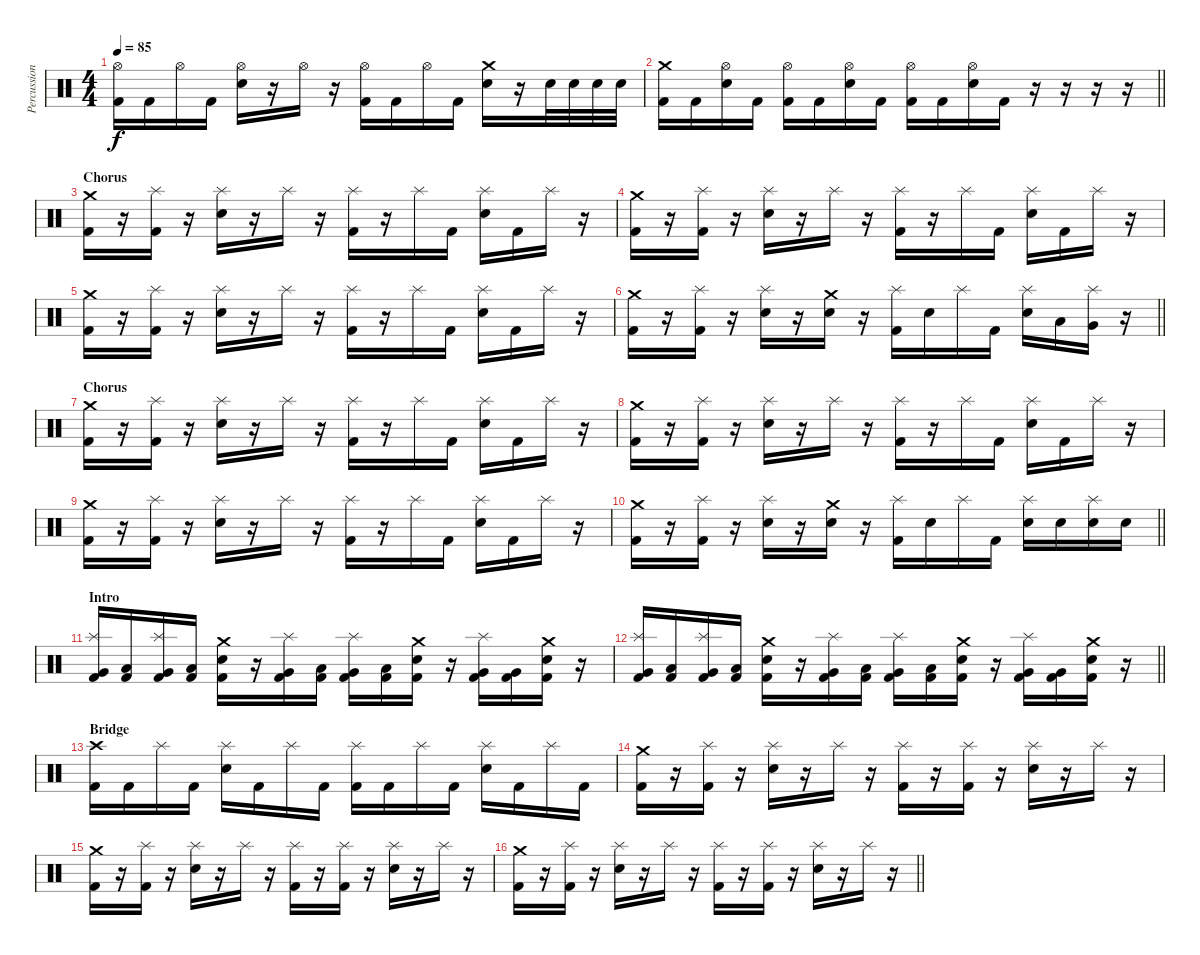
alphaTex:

\track ("Percussion" "Percussion") {instrument percussion}
\staff {score}
\articulation defaults
\ts (4 4)
\tempo 85
\clef neutral
\ks c
("Hi-Hat (open)" "Kick (hit) 2").16{dy f} "Kick (hit) 2".16 "Hi-Hat (open)".16 "Kick (hit) 2".16 ("Hi-Hat (open)" "Electric Snare (hit)").16 r.16 "Hi-Hat (open)".16 r.16 ("Hi-Hat (open)" "Kick (hit) 2").16 "Kick (hit) 2".16 "Hi-Hat (open)".16 "Kick (hit) 2".16 ("Crash medium (hit)" "Electric Snare (hit)").16 r.16 "Electric Snare (hit)".32 "Electric Snare (hit)".32 "Electric Snare (hit)".32 "Electric Snare (hit)".32 |
\barLineRight lightlight
("Crash medium (hit)" "Kick (hit) 2").16 "Kick (hit) 2".16 ("Hi-Hat (open)" "Electric Snare (hit)").16 "Kick (hit) 2".16 ("Hi-Hat (open)" "Kick (hit) 2").16 "Kick (hit) 2".16 ("Hi-Hat (open)" "Electric Snare (hit)").16 "Kick (hit) 2".16 ("Hi-Hat (open)" "Kick (hit) 2").16 "Kick (hit) 2".16 ("Hi-Hat (open)" "Electric Snare (hit)").16 "Kick (hit) 2".16 r.16 r.16 r.16 r.16 |
\section ("" "Chorus")
("Crash medium (hit)" "Kick (hit) 2").16 r.16 ("Splash (hit)" "Kick (hit) 2").16 r.16 ("Splash (hit)" "Electric Snare (hit)").16 r.16 "Splash (hit)".16 r.16 ("Splash (hit)" "Kick (hit) 2").16 r.16 "Splash (hit)".16 "Kick (hit) 2".16 ("Splash (hit)" "Electric Snare (hit)").16 "Kick (hit) 2".16 "Splash (hit)".16 r.16 |
("Crash medium (hit)" "Kick (hit) 2").16 r.16 ("Splash (hit)" "Kick (hit) 2").16 r.16 ("Splash (hit)" "Electric Snare (hit)").16 r.16 "Splash (hit)".16 r.16 ("Splash (hit)" "Kick (hit) 2").16 r.16 "Splash (hit)".16 "Kick (hit) 2".16 ("Splash (hit)" "Electric Snare (hit)").16 "Kick (hit) 2".16 "Splash (hit)".16 r.16 |
("Crash medium (hit)" "Kick (hit) 2").16 r.16 ("Splash (hit)" "Kick (hit) 2").16 r.16 ("Splash (hit)" "Electric Snare (hit)").16 r.16 "Splash (hit)".16 r.16 ("Splash (hit)" "Kick (hit) 2").16 r.16 "Splash (hit)".16 "Kick (hit) 2".16 ("Splash (hit)" "Electric Snare (hit)").16 "Kick (hit) 2".16 "Splash (hit)".16 r.16 |
\barLineRight lightlight
("Crash medium (hit)" "Kick (hit) 2").16 r.16 ("Splash (hit)" "Kick (hit) 2").16 r.16 ("Splash (hit)" "Electric Snare (hit)").16 r.16 ("Crash medium (hit)" "Electric Snare (hit)").16 r.16 ("Splash (hit)" "Kick (hit) 2").16 "Electric Snare (hit)".16 "Splash (hit)".16 "Kick (hit) 2".16 ("Splash (hit)" "Electric Snare (hit)").16 "Low Tom (hit)".16 ("Splash (hit)" "Very Low Tom (hit)").16 r.16 |
\section ("" "Chorus")
("Crash medium (hit)" "Kick (hit) 2").16 r.16 ("Splash (hit)" "Kick (hit) 2").16 r.16 ("Splash (hit)" "Electric Snare (hit)").16 r.16 "Splash (hit)".16 r.16 ("Splash (hit)" "Kick (hit) 2").16 r.16 "Splash (hit)".16 "Kick (hit) 2".16 ("Splash (hit)" "Electric Snare (hit)").16 "Kick (hit) 2".16 "Splash (hit)".16 r.16 |
("Crash medium (hit)" "Kick (hit) 2").16 r.16 ("Splash (hit)" "Kick (hit) 2").16 r.16 ("Splash (hit)" "Electric Snare (hit)").16 r.16 "Splash (hit)".16 r.16 ("Splash (hit)" "Kick (hit) 2").16 r.16 "Splash (hit)".16 "Kick (hit) 2".16 ("Splash (hit)" "Electric Snare (hit)").16 "Kick (hit) 2".16 "Splash (hit)".16 r.16 |
("Crash medium (hit)" "Kick (hit) 2").16 r.16 ("Splash (hit)" "Kick (hit) 2").16 r.16 ("Splash (hit)" "Electric Snare (hit)").16 r.16 "Splash (hit)".16 r.16 ("Splash (hit)" "Kick (hit) 2").16 r.16 "Splash (hit)".16 "Kick (hit) 2".16 ("Splash (hit)" "Electric Snare (hit)").16 "Kick (hit) 2".16 "Splash (hit)".16 r.16 |
\barLineRight lightlight
("Crash medium (hit)" "Kick (hit) 2").16 r.16 ("Splash (hit)" "Kick (hit) 2").16 r.16 ("Splash (hit)" "Electric Snare (hit)").16 r.16 ("Crash medium (hit)" "Electric Snare (hit)").16 r.16 ("Splash (hit)" "Kick (hit) 2").16 "Electric Snare (hit)".16 "Splash (hit)".16 "Kick (hit) 2".16 ("Splash (hit)" "Electric Snare (hit)").16 "Electric Snare (hit)".16 ("Splash (hit)" "Electric Snare (hit)").16 "Electric Snare (hit)".16 |
\section ("" "Intro")
("Splash (hit)" "Very Low Tom (hit)" "Kick (hit) 2").16 ("Low Tom (hit)" "Kick (hit) 2").16 ("Splash (hit)" "Very Low Tom (hit)" "Kick (hit) 2").16 ("Low Floor Tom (hit)" "Kick (hit) 2").16 ("Crash medium (hit)" "Electric Snare (hit)" "Kick (hit) 2").16 r.16 ("Splash (hit)" "Very Low Tom (hit)" "Kick (hit) 2").16 ("Low Tom (hit)" "Kick (hit) 2").16 ("Splash (hit)" "Very Low Tom (hit)" "Kick (hit) 2").16 ("Low Floor Tom (hit)" "Kick (hit) 2").16 ("Crash medium (hit)" "Electric Snare (hit)" "Kick (hit) 2").16 r.16 ("Splash (hit)" "Very Low Tom (hit)" "Kick (hit) 2").16 ("Very Low Tom (hit)" "Kick (hit) 2").16 ("Crash medium (hit)" "Electric Snare (hit)" "Kick (hit) 2").16 r.16 |
\barLineRight lightlight
("Splash (hit)" "Very Low Tom (hit)" "Kick (hit) 2").16 ("Low Tom (hit)" "Kick (hit) 2").16 ("Splash (hit)" "Very Low Tom (hit)" "Kick (hit) 2").16 ("Low Floor Tom (hit)" "Kick (hit) 2").16 ("Crash medium (hit)" "Electric Snare (hit)" "Kick (hit) 2").16 r.16 ("Splash (hit)" "Very Low Tom (hit)" "Kick (hit) 2").16 ("Low Tom (hit)" "Kick (hit) 2").16 ("Splash (hit)" "Very Low Tom (hit)" "Kick (hit) 2").16 ("Low Floor Tom (hit)" "Kick (hit) 2").16 ("Crash medium (hit)" "Electric Snare (hit)" "Kick (hit) 2").16 r.16 ("Splash (hit)" "Very Low Tom (hit)" "Kick (hit) 2").16 ("Very Low Tom (hit)" "Kick (hit) 2").16 ("Crash medium (hit)" "Electric Snare (hit)" "Kick (hit) 2").16 r.16 |
\section ("" "Bridge")
("Crash high (hit)" "Kick (hit) 2").16 "Kick (hit) 2".16 "Splash (hit)".16 "Kick (hit) 2".16 ("Splash (hit)" "Electric Snare (hit)").16 "Kick (hit) 2".16 "Splash (hit)".16 "Kick (hit) 2".16 ("Splash (hit)" "Kick (hit) 2").16 "Kick (hit) 2".16 "Splash (hit)".16 "Kick (hit) 2".16 ("Splash (hit)" "Electric Snare (hit)").16 "Kick (hit) 2".16 "Splash (hit)".16 "Kick (hit) 2".16 |
("Crash medium (hit)" "Kick (hit) 2").16 r.16 ("Splash (hit)" "Kick (hit) 2").16 r.16 ("Splash (hit)" "Electric Snare (hit)").16 r.16 "Splash (hit)".16 r.16 ("Splash (hit)" "Kick (hit) 2").16 r.16 ("Splash (hit)" "Kick (hit) 2").16 r.16 ("Splash (hit)" "Electric Snare (hit)").16 r.16 "Splash (hit)".16 r.16 |
("Crash medium (hit)" "Kick (hit) 2").16 r.16 ("Splash (hit)" "Kick (hit) 2").16 r.16 ("Splash (hit)" "Electric Snare (hit)").16 r.16 "Splash (hit)".16 r.16 ("Splash (hit)" "Kick (hit) 2").16 r.16 ("Splash (hit)" "Kick (hit) 2").16 r.16 ("Splash (hit)" "Electric Snare (hit)").16 r.16 "Splash (hit)".16 r.16 |
\barLineRight lightlight
("Crash medium (hit)" "Kick (hit) 2").16 r.16 ("Splash (hit)" "Kick (hit) 2").16 r.16 ("Splash (hit)" "Electric Snare (hit)").16 r.16 "Splash (hit)".16 r.16 ("Splash (hit)" "Kick (hit) 2").16 r.16 ("Splash (hit)" "Kick (hit) 2").16 r.16 ("Splash (hit)" "Electric Snare (hit)").16 r.16 "Splash (hit)".16 r.16
